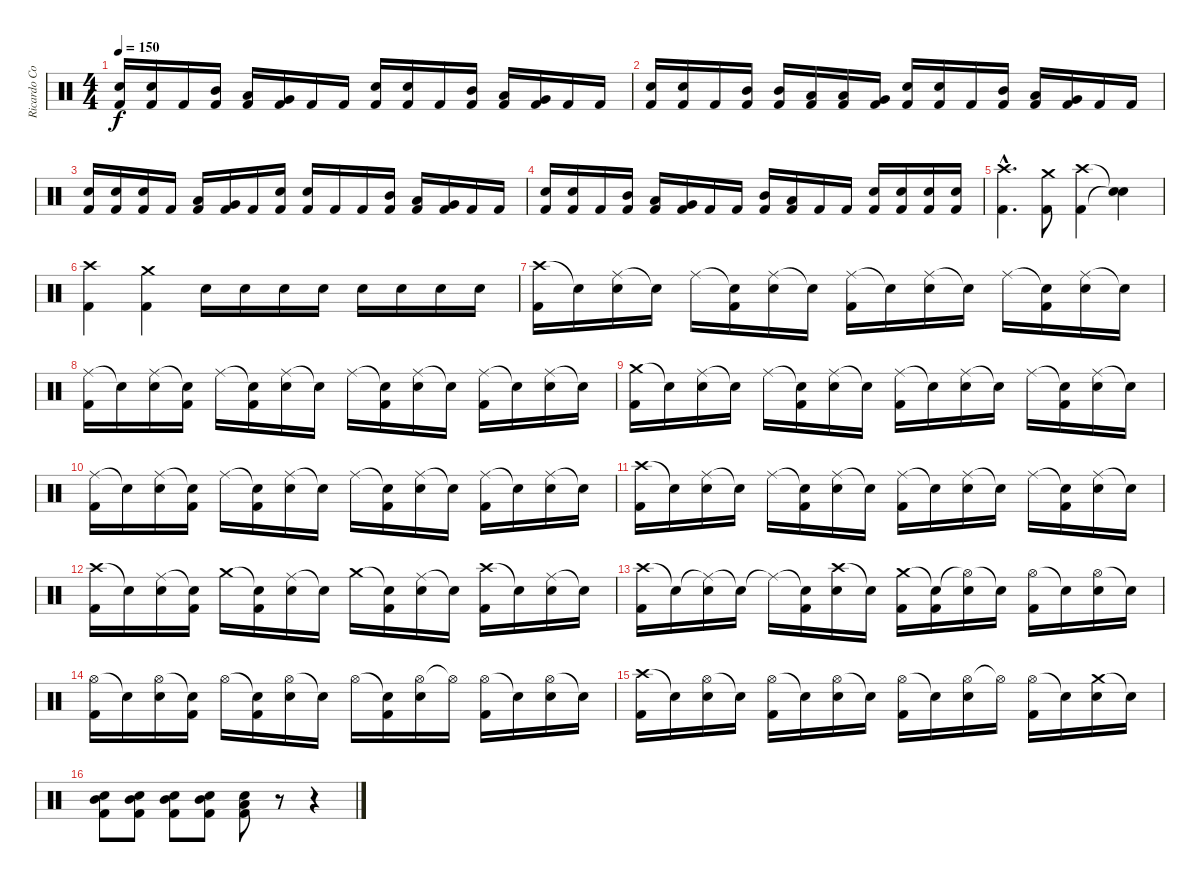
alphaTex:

\track ("Ricardo Confessori" "Ricardo Co") {instrument percussion}
\staff {score}
\articulation defaults
\ts (4 4)
\tempo 150
\clef neutral
\ks c
("Electric Snare (hit)" "Kick (hit) 2").16{dy f} ("Electric Snare (hit)" "Kick (hit) 2").16 "Kick (hit) 2".16 ("Mid Tom (hit)" "Kick (hit) 2").16 ("Low Tom (hit)" "Kick (hit) 2").16 ("Very Low Tom (hit)" "Kick (hit) 2").16 "Kick (hit) 2".16 "Kick (hit) 2".16 ("Electric Snare (hit)" "Kick (hit) 2").16 ("Electric Snare (hit)" "Kick (hit) 2").16 "Kick (hit) 2".16 ("Mid Tom (hit)" "Kick (hit) 2").16 ("Low Tom (hit)" "Kick (hit) 2").16 ("Very Low Tom (hit)" "Kick (hit) 2").16 "Kick (hit) 2".16 "Kick (hit) 2".16 |
("Electric Snare (hit)" "Kick (hit) 2").16 ("Electric Snare (hit)" "Kick (hit) 2").16 "Kick (hit) 2".16 ("Mid Tom (hit)" "Kick (hit) 2").16 ("Mid Tom (hit)" "Kick (hit) 2").16 ("Low Tom (hit)" "Kick (hit) 2").16 ("Low Tom (hit)" "Kick (hit) 2").16 ("Very Low Tom (hit)" "Kick (hit) 2").16 ("Electric Snare (hit)" "Kick (hit) 2").16 ("Electric Snare (hit)" "Kick (hit) 2").16 "Kick (hit) 2".16 ("Mid Tom (hit)" "Kick (hit) 2").16 ("Low Tom (hit)" "Kick (hit) 2").16 ("Very Low Tom (hit)" "Kick (hit) 2").16 "Kick (hit) 2".16 "Kick (hit) 2".16 |
("Electric Snare (hit)" "Kick (hit) 2").16 ("Electric Snare (hit)" "Kick (hit) 2").16 ("Electric Snare (hit)" "Kick (hit) 2").16 "Kick (hit) 2".16 ("Low Tom (hit)" "Kick (hit) 2").16 ("Very Low Tom (hit)" "Kick (hit) 2").16 "Kick (hit) 2".16 ("Electric Snare (hit)" "Kick (hit) 2").16 ("Electric Snare (hit)" "Kick (hit) 2").16 "Kick (hit) 2".16 "Kick (hit) 2".16 ("Mid Tom (hit)" "Kick (hit) 2").16 ("Low Tom (hit)" "Kick (hit) 2").16 ("Very Low Tom (hit)" "Kick (hit) 2").16 "Kick (hit) 2".16 "Kick (hit) 2".16 |
("Electric Snare (hit)" "Kick (hit) 2").16 ("Electric Snare (hit)" "Kick (hit) 2").16 "Kick (hit) 2".16 ("Mid Tom (hit)" "Kick (hit) 2").16 ("Low Tom (hit)" "Kick (hit) 2").16 ("Very Low Tom (hit)" "Kick (hit) 2").16 "Kick (hit) 2".16 "Kick (hit) 2".16 ("Mid Tom (hit)" "Kick (hit) 2").16 ("Low Tom (hit)" "Kick (hit) 2").16 "Kick (hit) 2".16 "Kick (hit) 2".16 ("Electric Snare (hit)" "Kick (hit) 2").16 ("Electric Snare (hit)" "Kick (hit) 2").16 ("Electric Snare (hit)" "Kick (hit) 2").16 ("Electric Snare (hit)" "Kick (hit) 2").16 |
("Crash high (hit)"{hac} "Kick (hit) 2"{hac}).4{d} ("Crash medium (hit)" "Kick (hit) 2").8 ("Crash high (hit)" "Kick (hit) 2").4 ("Snare (hit)"{t} "Snare (hit)"{t}).4 |
("Crash high (hit)" "Kick (hit) 2").4 ("Crash medium (hit)" "Kick (hit) 2").4 "Electric Snare (hit)".16 "Electric Snare (hit)".16 "Electric Snare (hit)".16 "Electric Snare (hit)".16 "Electric Snare (hit)".16 "Electric Snare (hit)".16 "Electric Snare (hit)".16 "Electric Snare (hit)".16 |
("Crash high (hit)" "Kick (hit) 2").16 "Snare (hit)"{t}.16 ("Ride (middle)" "Electric Snare (hit)").16 "Snare (hit)"{t}.16 "Ride (middle)".16 ("Snare (hit)"{t} "Kick (hit) 2").16 ("Ride (middle)" "Electric Snare (hit)").16 "Snare (hit)"{t}.16 ("Ride (middle)" "Kick (hit) 2").16 "Snare (hit)"{t}.16 ("Ride (middle)" "Electric Snare (hit)").16 "Snare (hit)"{t}.16 "Ride (middle)".16 ("Snare (hit)"{t} "Kick (hit) 2").16 ("Ride (middle)" "Electric Snare (hit)").16 "Snare (hit)"{t}.16 |
("Ride (middle)" "Kick (hit) 2").16 "Snare (hit)"{t}.16 ("Ride (middle)" "Electric Snare (hit)").16 ("Snare (hit)"{t} "Kick (hit) 2").16 "Ride (middle)".16 ("Snare (hit)"{t} "Kick (hit) 2").16 ("Ride (middle)" "Electric Snare (hit)").16 "Snare (hit)"{t}.16 "Ride (middle)".16 ("Snare (hit)"{t} "Kick (hit) 2").16 ("Ride (middle)" "Electric Snare (hit)").16 "Snare (hit)"{t}.16 ("Ride (middle)" "Kick (hit) 2").16 "Snare (hit)"{t}.16 ("Ride (middle)" "Electric Snare (hit)").16 "Snare (hit)"{t}.16 |
("Crash medium (hit)" "Kick (hit) 2").16 "Snare (hit)"{t}.16 ("Ride (middle)" "Electric Snare (hit)").16 "Snare (hit)"{t}.16 "Ride (middle)".16 ("Snare (hit)"{t} "Kick (hit) 2").16 ("Ride (middle)" "Electric Snare (hit)").16 "Snare (hit)"{t}.16 ("Ride (middle)" "Kick (hit) 2").16 "Snare (hit)"{t}.16 ("Ride (middle)" "Electric Snare (hit)").16 "Snare (hit)"{t}.16 "Ride (middle)".16 ("Snare (hit)"{t} "Kick (hit) 2").16 ("Ride (middle)" "Electric Snare (hit)").16 "Snare (hit)"{t}.16 |
("Ride (middle)" "Kick (hit) 2").16 "Snare (hit)"{t}.16 ("Ride (middle)" "Electric Snare (hit)").16 ("Snare (hit)"{t} "Kick (hit) 2").16 "Ride (middle)".16 ("Snare (hit)"{t} "Kick (hit) 2").16 ("Ride (middle)" "Electric Snare (hit)").16 "Snare (hit)"{t}.16 "Ride (middle)".16 ("Snare (hit)"{t} "Kick (hit) 2").16 ("Ride (middle)" "Electric Snare (hit)").16 "Snare (hit)"{t}.16 ("Ride (middle)" "Kick (hit) 2").16 "Snare (hit)"{t}.16 ("Ride (middle)" "Electric Snare (hit)").16 "Snare (hit)"{t}.16 |
("Crash high (hit)" "Kick (hit) 2").16 "Snare (hit)"{t}.16 ("Ride (middle)" "Electric Snare (hit)").16 "Snare (hit)"{t}.16 "Ride (middle)".16 ("Snare (hit)"{t} "Kick (hit) 2").16 ("Ride (middle)" "Electric Snare (hit)").16 "Snare (hit)"{t}.16 ("Ride (middle)" "Kick (hit) 2").16 "Snare (hit)"{t}.16 ("Ride (middle)" "Electric Snare (hit)").16 "Snare (hit)"{t}.16 "Ride (middle)".16 ("Snare (hit)"{t} "Kick (hit) 2").16 ("Ride (middle)" "Electric Snare (hit)").16 "Snare (hit)"{t}.16 |
("Crash high (hit)" "Kick (hit) 2").16 "Snare (hit)"{t}.16 ("Ride (middle)" "Electric Snare (hit)").16 ("Snare (hit)"{t} "Kick (hit) 2").16 "Crash medium (hit)".16 ("Snare (hit)"{t} "Kick (hit) 2").16 ("Ride (middle)" "Electric Snare (hit)").16 "Snare (hit)"{t}.16 "Crash medium (hit)".16 ("Snare (hit)"{t} "Kick (hit) 2").16 ("Ride (middle)" "Electric Snare (hit)").16 "Snare (hit)"{t}.16 ("Crash high (hit)" "Kick (hit) 2").16 "Snare (hit)"{t}.16 ("Ride (middle)" "Electric Snare (hit)").16 "Snare (hit)"{t}.16 |
("Crash high (hit)" "Kick (hit) 2").16 "Snare (hit)"{t}.16 ("Ride (middle)"{t} "Electric Snare (hit)").16 "Snare (hit)"{t}.16 "Ride (middle)"{t}.16 ("Snare (hit)"{t} "Kick (hit) 2").16 ("Crash high (hit)" "Electric Snare (hit)").16 "Snare (hit)"{t}.16 ("Crash medium (hit)" "Kick (hit) 2").16 ("Snare (hit)"{t} "Kick (hit) 2").16 ("Hi-Hat (open)"{t} "Electric Snare (hit)").16 "Snare (hit)"{t}.16 ("Hi-Hat (open)" "Kick (hit) 2").16 "Snare (hit)"{t}.16 ("Hi-Hat (open)" "Electric Snare (hit)").16 "Snare (hit)"{t}.16 |
("Hi-Hat (open)" "Kick (hit) 2").16 "Snare (hit)"{t}.16 ("Hi-Hat (open)" "Electric Snare (hit)").16 ("Snare (hit)"{t} "Kick (hit) 2").16 "Hi-Hat (open)".16 ("Snare (hit)"{t} "Kick (hit) 2").16 ("Hi-Hat (open)" "Electric Snare (hit)").16 "Snare (hit)"{t}.16 "Hi-Hat (open)".16 ("Snare (hit)"{t} "Kick (hit) 2").16 ("Hi-Hat (open)" "Electric Snare (hit)").16 "Hi-Hat (open)"{t}.16 ("Hi-Hat (open)" "Kick (hit) 2").16 "Snare (hit)"{t}.16 ("Hi-Hat (open)" "Electric Snare (hit)").16 "Snare (hit)"{t}.16 |
("Crash high (hit)" "Kick (hit) 2").16 "Snare (hit)"{t}.16 ("Hi-Hat (open)" "Electric Snare (hit)").16 "Snare (hit)"{t}.16 ("Hi-Hat (open)" "Kick (hit) 2").16 "Snare (hit)"{t}.16 ("Hi-Hat (open)" "Electric Snare (hit)").16 "Snare (hit)"{t}.16 ("Hi-Hat (open)" "Kick (hit) 2").16 "Snare (hit)"{t}.16 ("Hi-Hat (open)" "Electric Snare (hit)").16 "Hi-Hat (open)"{t}.16 ("Hi-Hat (open)" "Kick (hit) 2").16 "Snare (hit)"{t}.16 ("Crash medium (hit)" "Electric Snare (hit)").16 "Snare (hit)"{t}.16 |
("Electric Snare (hit)" "Mid Tom (hit)" "Kick (hit) 2").8 ("Electric Snare (hit)" "Mid Tom (hit)" "Kick (hit) 2").8 ("Electric Snare (hit)" "Mid Tom (hit)" "Kick (hit) 2").8 ("Electric Snare (hit)" "Mid Tom (hit)" "Kick (hit) 2").8 ("Electric Snare (hit)" "Low Tom (hit)" "Kick (hit) 2").8 r.8 r.4
